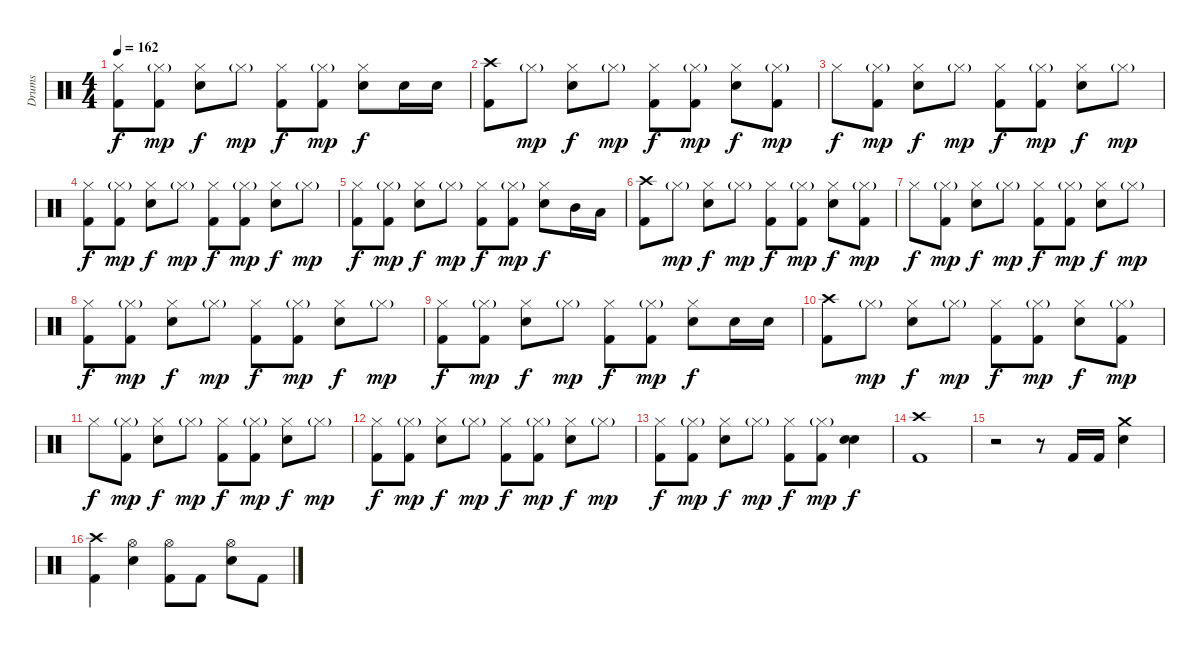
\track ("Drums" "Drums") {instrument percussion}
\staff {score}
\articulation defaults
\ts (4 4)
\tempo 162
\clef neutral
\ks c
("Hi-Hat (closed)" "Kick (hit) 2").8{dy f} ("Hi-Hat (closed)"{g} "Kick (hit) 2").8{dy mp} ("Hi-Hat (closed)" "Snare (hit) 2").8{dy f} "Hi-Hat (closed)"{g}.8{dy mp} ("Hi-Hat (closed)" "Kick (hit) 2").8{dy f} ("Hi-Hat (closed)"{g} "Kick (hit) 2").8{dy mp} ("Hi-Hat (closed)" "Snare (hit) 2").8{dy f} "Snare (hit) 2".16 "Snare (hit) 2".16 |
("Crash high (hit)" "Kick (hit) 2").8 "Hi-Hat (closed)"{g}.8{dy mp} ("Hi-Hat (closed)" "Snare (hit) 2").8{dy f} "Hi-Hat (closed)"{g}.8{dy mp} ("Hi-Hat (closed)" "Kick (hit) 2").8{dy f} ("Hi-Hat (closed)"{g} "Kick (hit) 2").8{dy mp} ("Hi-Hat (closed)" "Snare (hit) 2").8{dy f} ("Hi-Hat (closed)"{g} "Kick (hit) 2").8{dy mp} |
"Hi-Hat (closed)".8{dy f} ("Hi-Hat (closed)"{g} "Kick (hit) 2").8{dy mp} ("Hi-Hat (closed)" "Snare (hit) 2").8{dy f} "Hi-Hat (closed)"{g}.8{dy mp} ("Hi-Hat (closed)" "Kick (hit) 2").8{dy f} ("Hi-Hat (closed)"{g} "Kick (hit) 2").8{dy mp} ("Hi-Hat (closed)" "Snare (hit) 2").8{dy f} "Hi-Hat (closed)"{g}.8{dy mp} |
("Hi-Hat (closed)" "Kick (hit) 2").8{dy f} ("Hi-Hat (closed)"{g} "Kick (hit) 2").8{dy mp} ("Hi-Hat (closed)" "Snare (hit) 2").8{dy f} "Hi-Hat (closed)"{g}.8{dy mp} ("Hi-Hat (closed)" "Kick (hit) 2").8{dy f} ("Hi-Hat (closed)"{g} "Kick (hit) 2").8{dy mp} ("Hi-Hat (closed)" "Snare (hit) 2").8{dy f} "Hi-Hat (closed)"{g}.8{dy mp} |
("Hi-Hat (closed)" "Kick (hit) 2").8{dy f} ("Hi-Hat (closed)"{g} "Kick (hit) 2").8{dy mp} ("Hi-Hat (closed)" "Snare (hit) 2").8{dy f} "Hi-Hat (closed)"{g}.8{dy mp} ("Hi-Hat (closed)" "Kick (hit) 2").8{dy f} ("Hi-Hat (closed)"{g} "Kick (hit) 2").8{dy mp} ("Hi-Hat (closed)" "Snare (hit) 2").8{dy f} "Mid Tom (hit)".16 "Low Tom (hit)".16 |
("Crash high (hit)" "Kick (hit) 2").8 "Hi-Hat (closed)"{g}.8{dy mp} ("Hi-Hat (closed)" "Snare (hit) 2").8{dy f} "Hi-Hat (closed)"{g}.8{dy mp} ("Hi-Hat (closed)" "Kick (hit) 2").8{dy f} ("Hi-Hat (closed)"{g} "Kick (hit) 2").8{dy mp} ("Hi-Hat (closed)" "Snare (hit) 2").8{dy f} ("Hi-Hat (closed)"{g} "Kick (hit) 2").8{dy mp} |
"Hi-Hat (closed)".8{dy f} ("Hi-Hat (closed)"{g} "Kick (hit) 2").8{dy mp} ("Hi-Hat (closed)" "Snare (hit) 2").8{dy f} "Hi-Hat (closed)"{g}.8{dy mp} ("Hi-Hat (closed)" "Kick (hit) 2").8{dy f} ("Hi-Hat (closed)"{g} "Kick (hit) 2").8{dy mp} ("Hi-Hat (closed)" "Snare (hit) 2").8{dy f} "Hi-Hat (closed)"{g}.8{dy mp} |
("Hi-Hat (closed)" "Kick (hit) 2").8{dy f} ("Hi-Hat (closed)"{g} "Kick (hit) 2").8{dy mp} ("Hi-Hat (closed)" "Snare (hit) 2").8{dy f} "Hi-Hat (closed)"{g}.8{dy mp} ("Hi-Hat (closed)" "Kick (hit) 2").8{dy f} ("Hi-Hat (closed)"{g} "Kick (hit) 2").8{dy mp} ("Hi-Hat (closed)" "Snare (hit) 2").8{dy f} "Hi-Hat (closed)"{g}.8{dy mp} |
("Hi-Hat (closed)" "Kick (hit) 2").8{dy f} ("Hi-Hat (closed)"{g} "Kick (hit) 2").8{dy mp} ("Hi-Hat (closed)" "Snare (hit) 2").8{dy f} "Hi-Hat (closed)"{g}.8{dy mp} ("Hi-Hat (closed)" "Kick (hit) 2").8{dy f} ("Hi-Hat (closed)"{g} "Kick (hit) 2").8{dy mp} ("Hi-Hat (closed)" "Snare (hit) 2").8{dy f} "Snare (hit) 2".16 "Snare (hit) 2".16 |
("Crash high (hit)" "Kick (hit) 2").8 "Hi-Hat (closed)"{g}.8{dy mp} ("Hi-Hat (closed)" "Snare (hit) 2").8{dy f} "Hi-Hat (closed)"{g}.8{dy mp} ("Hi-Hat (closed)" "Kick (hit) 2").8{dy f} ("Hi-Hat (closed)"{g} "Kick (hit) 2").8{dy mp} ("Hi-Hat (closed)" "Snare (hit) 2").8{dy f} ("Hi-Hat (closed)"{g} "Kick (hit) 2").8{dy mp} |
"Hi-Hat (closed)".8{dy f} ("Hi-Hat (closed)"{g} "Kick (hit) 2").8{dy mp} ("Hi-Hat (closed)" "Snare (hit) 2").8{dy f} "Hi-Hat (closed)"{g}.8{dy mp} ("Hi-Hat (closed)" "Kick (hit) 2").8{dy f} ("Hi-Hat (closed)"{g} "Kick (hit) 2").8{dy mp} ("Hi-Hat (closed)" "Snare (hit) 2").8{dy f} "Hi-Hat (closed)"{g}.8{dy mp} |
("Hi-Hat (closed)" "Kick (hit) 2").8{dy f} ("Hi-Hat (closed)"{g} "Kick (hit) 2").8{dy mp} ("Hi-Hat (closed)" "Snare (hit) 2").8{dy f} "Hi-Hat (closed)"{g}.8{dy mp} ("Hi-Hat (closed)" "Kick (hit) 2").8{dy f} ("Hi-Hat (closed)"{g} "Kick (hit) 2").8{dy mp} ("Hi-Hat (closed)" "Snare (hit) 2").8{dy f} "Hi-Hat (closed)"{g}.8{dy mp} |
("Hi-Hat (closed)" "Kick (hit) 2").8{dy f} ("Hi-Hat (closed)"{g} "Kick (hit) 2").8{dy mp} ("Hi-Hat (closed)" "Snare (hit) 2").8{dy f} "Hi-Hat (closed)"{g}.8{dy mp} ("Hi-Hat (closed)" "Kick (hit) 2").8{dy f} ("Hi-Hat (closed)"{g} "Kick (hit) 2").8{dy mp} ("Snare (hit) 2" "Snare (hit) 2").4{dy f} |
("Crash high (hit)" "Kick (hit) 2").1 |
r.2 r.8 "Kick (hit) 2".16 "Kick (hit) 2".16 ("Crash medium (hit)" "Snare (hit) 2").4 |
("Crash high (hit)" "Kick (hit) 2").4 ("Hi-Hat (open)" "Snare (hit) 2").4 ("Hi-Hat (open)" "Kick (hit) 2").8 "Kick (hit) 2".8 ("Hi-Hat (open)" "Snare (hit) 2").8 "Kick (hit) 2".8
